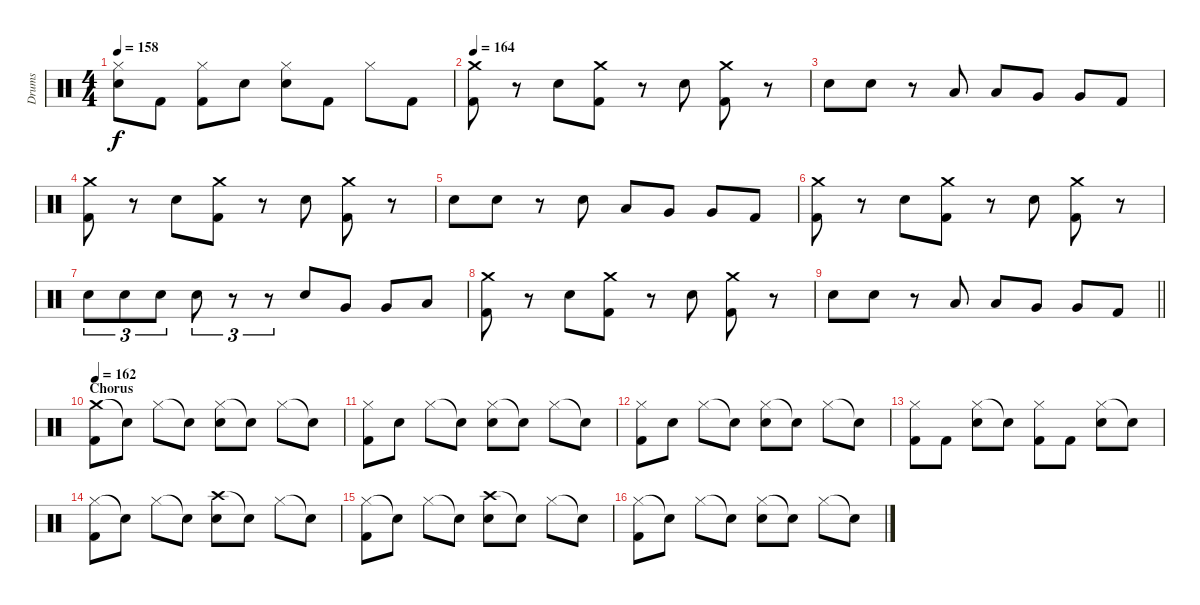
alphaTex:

\track ("Drums" "Drums") {instrument percussion}
\staff {score}
\articulation defaults
\ts (4 4)
\tempo 158
\clef neutral
\ks c
("Hi-Hat (closed)" "Snare (hit) 2").8{dy f} "Kick (hit) 2".8 ("Hi-Hat (closed)" "Kick (hit) 2").8 "Snare (hit) 2".8 ("Hi-Hat (closed)" "Snare (hit) 2").8 "Kick (hit) 2".8 "Hi-Hat (closed)".8 "Kick (hit) 2".8 |
\tempo 164
("Crash medium (hit)" "Kick (hit) 2").8 r.8 "Snare (hit) 2".8 ("Crash medium (hit)" "Kick (hit) 2").8 r.8 "Snare (hit) 2".8 ("Crash medium (hit)" "Kick (hit) 2").8 r.8 |
"Snare (hit) 2".8 "Snare (hit) 2".8 r.8 "Low Tom (hit)".8 "Low Tom (hit)".8 "Very Low Tom (hit)".8 "Very Low Tom (hit)".8 "Kick (hit) 2".8 |
("Crash medium (hit)" "Kick (hit) 2").8 r.8 "Snare (hit) 2".8 ("Crash medium (hit)" "Kick (hit) 2").8 r.8 "Snare (hit) 2".8 ("Crash medium (hit)" "Kick (hit) 2").8 r.8 |
"Snare (hit) 2".8 "Snare (hit) 2".8 r.8 "Snare (hit) 2".8 "Low Tom (hit)".8 "Very Low Tom (hit)".8 "Very Low Tom (hit)".8 "Kick (hit) 2".8 |
("Crash medium (hit)" "Kick (hit) 2").8 r.8 "Snare (hit) 2".8 ("Crash medium (hit)" "Kick (hit) 2").8 r.8 "Snare (hit) 2".8 ("Crash medium (hit)" "Kick (hit) 2").8 r.8 |
"Snare (hit) 2".8{tu (3 2)} "Snare (hit) 2".8{tu (3 2)} "Snare (hit) 2".8{tu (3 2)} "Snare (hit) 2".8{tu (3 2)} r.8{tu (3 2)} r.8{tu (3 2)} "Snare (hit) 2".8 "Very Low Tom (hit)".8 "Very Low Tom (hit)".8 "Low Tom (hit)".8 |
("Crash medium (hit)" "Kick (hit) 2").8 r.8 "Snare (hit) 2".8 ("Crash medium (hit)" "Kick (hit) 2").8 r.8 "Snare (hit) 2".8 ("Crash medium (hit)" "Kick (hit) 2").8 r.8 |
\barLineRight lightlight "Snare (hit) 2".8 "Snare (hit) 2".8
r.8 "Low Tom (hit)".8 "Low Tom (hit)".8 "Very Low Tom (hit)".8 "Very Low Tom (hit)".8 "Kick (hit) 2".8 |
\section ("" "Chorus")
\tempo 162
("Crash medium (hit)" "Kick (hit) 2").8 "Snare (hit)"{t}.8 "Hi-Hat (closed)".8 "Snare (hit)"{t}.8 ("Hi-Hat (closed)" "Snare (hit) 2").8 "Snare (hit)"{t}.8 "Hi-Hat (closed)".8 "Snare (hit)"{t}.8 |
("Hi-Hat (closed)" "Kick (hit) 2").8 "Snare (hit) 2".8 "Hi-Hat (closed)".8 "Snare (hit)"{t}.8 ("Hi-Hat (closed)" "Snare (hit) 2").8 "Snare (hit)"{t}.8 "Hi-Hat (closed)".8 "Snare (hit)"{t}.8 |
("Hi-Hat (closed)" "Kick (hit) 2").8 "Snare (hit) 2".8 "Hi-Hat (closed)".8 "Snare (hit)"{t}.8 ("Hi-Hat (closed)" "Snare (hit) 2").8 "Snare (hit)"{t}.8 "Hi-Hat (closed)".8 "Snare (hit)"{t}.8 |
("Hi-Hat (closed)" "Kick (hit) 2").8 "Kick (hit) 2".8 ("Hi-Hat (closed)" "Snare (hit) 2").8 "Snare (hit)"{t}.8 ("Hi-Hat (closed)" "Kick (hit) 2").8 "Kick (hit) 2".8 ("Hi-Hat (closed)" "Snare (hit) 2").8 "Snare (hit)"{t}.8 |
("Hi-Hat (closed)" "Kick (hit) 2").8 "Snare (hit)"{t}.8 "Hi-Hat (closed)".8 "Snare (hit)"{t}.8 ("Crash high (hit)" "Snare (hit) 2").8 "Snare (hit)"{t}.8 "Hi-Hat (closed)".8 "Snare (hit)"{t}.8 |
("Hi-Hat (closed)" "Kick (hit) 2").8 "Snare (hit)"{t}.8 "Hi-Hat (closed)".8 "Snare (hit)"{t}.8 ("Crash high (hit)" "Snare (hit) 2").8 "Snare (hit)"{t}.8 "Hi-Hat (closed)".8 "Snare (hit)"{t}.8 |
("Hi-Hat (closed)" "Kick (hit) 2").8 "Snare (hit)"{t}.8 "Hi-Hat (closed)".8 "Snare (hit)"{t}.8 ("Hi-Hat (closed)" "Snare (hit) 2").8 "Snare (hit)"{t}.8 "Hi-Hat (closed)".8 "Snare (hit)"{t}.8
